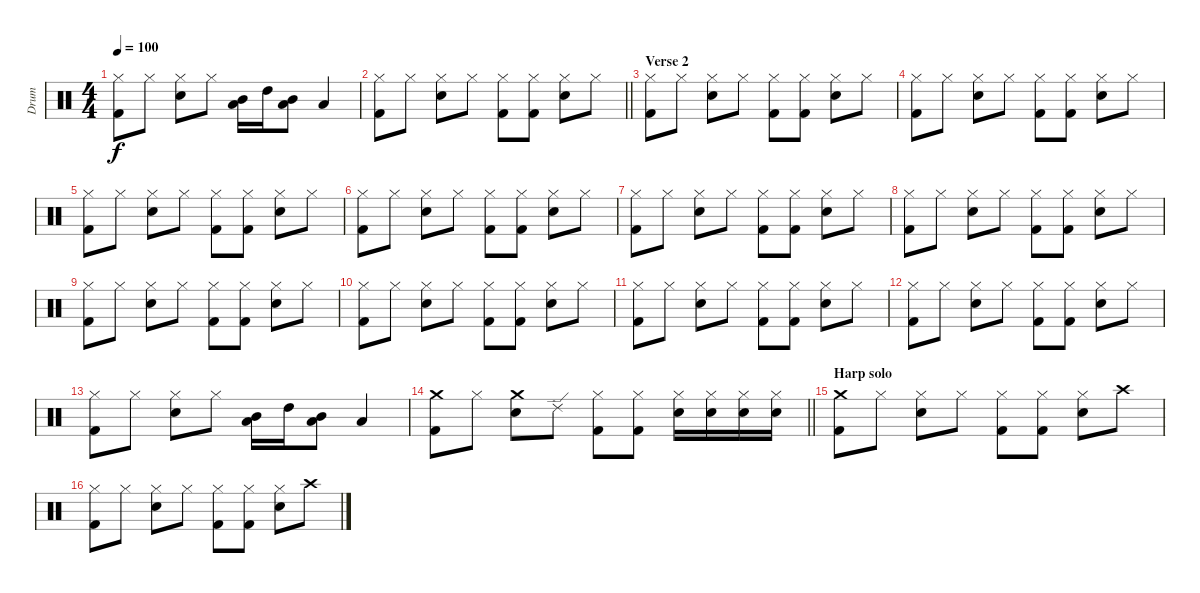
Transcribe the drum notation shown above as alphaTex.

\track ("Drum" "Drum") {instrument percussion}
\staff {score}
\articulation defaults
\ts (4 4)
\tempo 100
\clef neutral
\ks c
("Hi-Hat (closed)" "Kick (hit) 2").8{dy f} "Hi-Hat (closed)".8 ("Hi-Hat (closed)" "Snare (hit) 2").8 "Hi-Hat (closed)".8 ("Mid Tom (hit)" "Low Tom (hit)").16 "High Tom (hit)".16 ("Mid Tom (hit)" "Low Tom (hit)").8 "Low Tom (hit)".4 |
\barLineRight lightlight
("Hi-Hat (closed)" "Kick (hit) 2").8 "Hi-Hat (closed)".8 ("Hi-Hat (closed)" "Snare (hit) 2").8 "Hi-Hat (closed)".8 ("Hi-Hat (closed)" "Kick (hit) 2").8 ("Hi-Hat (closed)" "Kick (hit) 2").8 ("Hi-Hat (closed)" "Snare (hit) 2").8 "Hi-Hat (closed)".8 |
\section ("" "Verse 2")
("Hi-Hat (closed)" "Kick (hit) 2").8 "Hi-Hat (closed)".8 ("Hi-Hat (closed)" "Snare (hit) 2").8 "Hi-Hat (closed)".8 ("Hi-Hat (closed)" "Kick (hit) 2").8 ("Hi-Hat (closed)" "Kick (hit) 2").8 ("Hi-Hat (closed)" "Snare (hit) 2").8 "Hi-Hat (closed)".8 |
("Hi-Hat (closed)" "Kick (hit) 2").8 "Hi-Hat (closed)".8 ("Hi-Hat (closed)" "Snare (hit) 2").8 "Hi-Hat (closed)".8 ("Hi-Hat (closed)" "Kick (hit) 2").8 ("Hi-Hat (closed)" "Kick (hit) 2").8 ("Hi-Hat (closed)" "Snare (hit) 2").8 "Hi-Hat (closed)".8 |
("Hi-Hat (closed)" "Kick (hit) 2").8 "Hi-Hat (closed)".8 ("Hi-Hat (closed)" "Snare (hit) 2").8 "Hi-Hat (closed)".8 ("Hi-Hat (closed)" "Kick (hit) 2").8 ("Hi-Hat (closed)" "Kick (hit) 2").8 ("Hi-Hat (closed)" "Snare (hit) 2").8 "Hi-Hat (closed)".8 |
("Hi-Hat (closed)" "Kick (hit) 2").8 "Hi-Hat (closed)".8 ("Hi-Hat (closed)" "Snare (hit) 2").8 "Hi-Hat (closed)".8 ("Hi-Hat (closed)" "Kick (hit) 2").8 ("Hi-Hat (closed)" "Kick (hit) 2").8 ("Hi-Hat (closed)" "Snare (hit) 2").8 "Hi-Hat (closed)".8 |
("Hi-Hat (closed)" "Kick (hit) 2").8 "Hi-Hat (closed)".8 ("Hi-Hat (closed)" "Snare (hit) 2").8 "Hi-Hat (closed)".8 ("Hi-Hat (closed)" "Kick (hit) 2").8 ("Hi-Hat (closed)" "Kick (hit) 2").8 ("Hi-Hat (closed)" "Snare (hit) 2").8 "Hi-Hat (closed)".8 |
("Hi-Hat (closed)" "Kick (hit) 2").8 "Hi-Hat (closed)".8 ("Hi-Hat (closed)" "Snare (hit) 2").8 "Hi-Hat (closed)".8 ("Hi-Hat (closed)" "Kick (hit) 2").8 ("Hi-Hat (closed)" "Kick (hit) 2").8 ("Hi-Hat (closed)" "Snare (hit) 2").8 "Hi-Hat (closed)".8 |
("Hi-Hat (closed)" "Kick (hit) 2").8 "Hi-Hat (closed)".8 ("Hi-Hat (closed)" "Snare (hit) 2").8 "Hi-Hat (closed)".8 ("Hi-Hat (closed)" "Kick (hit) 2").8 ("Hi-Hat (closed)" "Kick (hit) 2").8 ("Hi-Hat (closed)" "Snare (hit) 2").8 "Hi-Hat (closed)".8 |
("Hi-Hat (closed)" "Kick (hit) 2").8 "Hi-Hat (closed)".8 ("Hi-Hat (closed)" "Snare (hit) 2").8 "Hi-Hat (closed)".8 ("Hi-Hat (closed)" "Kick (hit) 2").8 ("Hi-Hat (closed)" "Kick (hit) 2").8 ("Hi-Hat (closed)" "Snare (hit) 2").8 "Hi-Hat (closed)".8 |
("Hi-Hat (closed)" "Kick (hit) 2").8 "Hi-Hat (closed)".8 ("Hi-Hat (closed)" "Snare (hit) 2").8 "Hi-Hat (closed)".8 ("Hi-Hat (closed)" "Kick (hit) 2").8 ("Hi-Hat (closed)" "Kick (hit) 2").8 ("Hi-Hat (closed)" "Snare (hit) 2").8 "Hi-Hat (closed)".8 |
("Hi-Hat (closed)" "Kick (hit) 2").8 "Hi-Hat (closed)".8 ("Hi-Hat (closed)" "Snare (hit) 2").8 "Hi-Hat (closed)".8 ("Hi-Hat (closed)" "Kick (hit) 2").8 ("Hi-Hat (closed)" "Kick (hit) 2").8 ("Hi-Hat (closed)" "Snare (hit) 2").8 "Hi-Hat (closed)".8 |
("Hi-Hat (closed)" "Kick (hit) 2").8 "Hi-Hat (closed)".8 ("Hi-Hat (closed)" "Snare (hit) 2").8 "Hi-Hat (closed)".8 ("Mid Tom (hit)" "Low Tom (hit)").16 "High Tom (hit)".16 ("Mid Tom (hit)" "Low Tom (hit)").8 "Low Tom (hit)".4 |
\barLineRight lightlight
("Crash medium (hit)" "Kick (hit) 2").8 "Hi-Hat (closed)".8 ("Crash medium (hit)" "Snare (hit) 2").8 "Ride (edge) 2".8 ("Hi-Hat (closed)" "Kick (hit) 2").8 ("Hi-Hat (closed)" "Kick (hit) 2").8 ("Hi-Hat (closed)" "Snare (hit) 2").16 ("Hi-Hat (closed)" "Snare (hit) 2").16 ("Hi-Hat (closed)" "Snare (hit) 2").16 ("Hi-Hat (closed)" "Snare (hit) 2").16 |
\section ("" "Harp solo")
("Crash medium (hit)" "Kick (hit) 2").8 "Hi-Hat (closed)".8 ("Hi-Hat (closed)" "Snare (hit) 2").8 "Hi-Hat (closed)".8 ("Hi-Hat (closed)" "Kick (hit) 2").8 ("Hi-Hat (closed)" "Kick (hit) 2").8 ("Hi-Hat (closed)" "Snare (hit) 2").8 "Crash high (hit)".8 |
("Hi-Hat (closed)" "Kick (hit) 2").8 "Hi-Hat (closed)".8 ("Hi-Hat (closed)" "Snare (hit) 2").8 "Hi-Hat (closed)".8 ("Hi-Hat (closed)" "Kick (hit) 2").8 ("Hi-Hat (closed)" "Kick (hit) 2").8 ("Hi-Hat (closed)" "Snare (hit) 2").8 "Crash high (hit)".8
